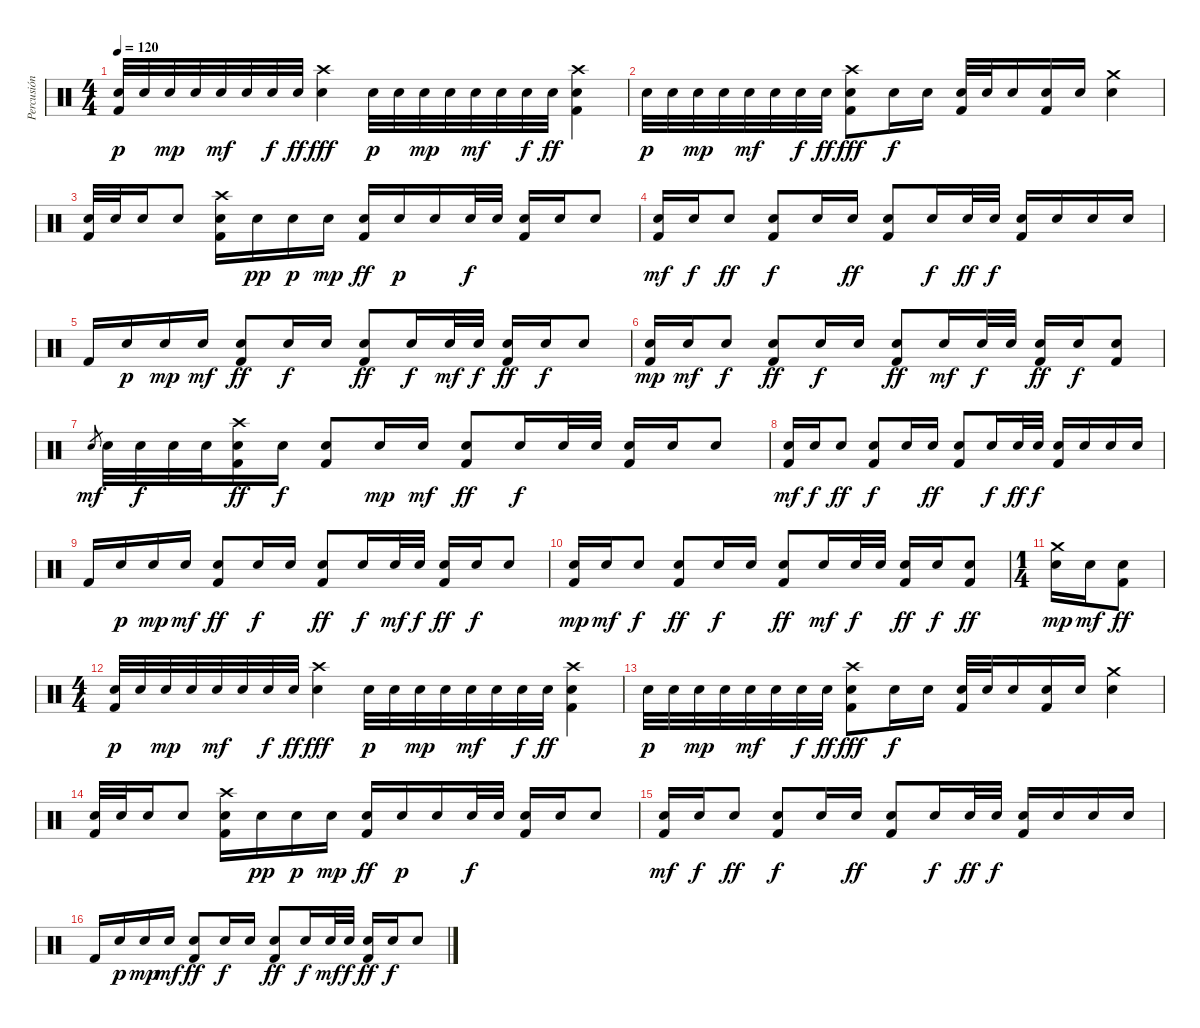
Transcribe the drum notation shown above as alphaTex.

\track ("Percusión" "Percusión") {instrument percussion}
\staff {score}
\articulation defaults
\ts (4 4)
\tempo 120
\clef neutral
\ks c
("Electric Snare (hit)" "Kick (hit) 2").32{dy p} "Electric Snare (hit)".32 "Electric Snare (hit)".32{dy mp} "Electric Snare (hit)".32 "Electric Snare (hit)".32{dy mf} "Electric Snare (hit)".32 "Electric Snare (hit)".32{dy f} "Electric Snare (hit)".32{dy ff} ("Crash high (hit)" "Electric Snare (hit)").4{dy fff} "Electric Snare (hit)".32{dy p} "Electric Snare (hit)".32 "Electric Snare (hit)".32{dy mp} "Electric Snare (hit)".32 "Electric Snare (hit)".32{dy mf} "Electric Snare (hit)".32 "Electric Snare (hit)".32{dy f} "Electric Snare (hit)".32{dy ff} ("Crash high (hit)" "Electric Snare (hit)" "Kick (hit) 2").4 |
"Electric Snare (hit)".32{dy p} "Electric Snare (hit)".32 "Electric Snare (hit)".32{dy mp} "Electric Snare (hit)".32 "Electric Snare (hit)".32{dy mf} "Electric Snare (hit)".32 "Electric Snare (hit)".32{dy f} "Electric Snare (hit)".32{dy ff} ("Crash high (hit)" "Electric Snare (hit)" "Kick (hit) 2").8{dy fff} "Electric Snare (hit)".16{dy f} "Electric Snare (hit)".16 ("Electric Snare (hit)" "Kick (hit) 2").32 "Electric Snare (hit)".32 "Electric Snare (hit)".16 ("Electric Snare (hit)" "Kick (hit) 2").16 "Electric Snare (hit)".16 ("Crash medium (hit)" "Electric Snare (hit)").4 |
("Electric Snare (hit)" "Kick (hit) 2").32 "Electric Snare (hit)".32 "Electric Snare (hit)".16 "Electric Snare (hit)".8 ("Crash high (hit)" "Electric Snare (hit)" "Kick (hit) 2").16 "Electric Snare (hit)".16{dy pp} "Electric Snare (hit)".16{dy p} "Electric Snare (hit)".16{dy mp} ("Electric Snare (hit)" "Kick (hit) 2").16{dy ff} "Electric Snare (hit)".16{dy p} "Electric Snare (hit)".16 "Electric Snare (hit)".32{dy f} "Electric Snare (hit)".32 ("Electric Snare (hit)" "Kick (hit) 2").16 "Electric Snare (hit)".16 "Electric Snare (hit)".8 |
("Electric Snare (hit)" "Kick (hit) 2").16{dy mf} "Electric Snare (hit)".16{dy f} "Electric Snare (hit)".8{dy ff} ("Electric Snare (hit)" "Kick (hit) 2").8{dy f} "Electric Snare (hit)".16 "Electric Snare (hit)".16{dy ff} ("Electric Snare (hit)" "Kick (hit) 2").8 "Electric Snare (hit)".16{dy f} "Electric Snare (hit)".32{dy ff} "Electric Snare (hit)".32{dy f} ("Electric Snare (hit)" "Kick (hit) 2").16 "Electric Snare (hit)".16 "Electric Snare (hit)".16 "Electric Snare (hit)".16 |
"Kick (hit) 2".16 "Electric Snare (hit)".16{dy p} "Electric Snare (hit)".16{dy mp} "Electric Snare (hit)".16{dy mf} ("Electric Snare (hit)" "Kick (hit) 2").8{dy ff} "Electric Snare (hit)".16{dy f} "Electric Snare (hit)".16 ("Electric Snare (hit)" "Kick (hit) 2").8{dy ff} "Electric Snare (hit)".16{dy f} "Electric Snare (hit)".32{dy mf} "Electric Snare (hit)".32{dy f} ("Electric Snare (hit)" "Kick (hit) 2").16{dy ff} "Electric Snare (hit)".16{dy f} "Electric Snare (hit)".8 |
("Electric Snare (hit)" "Kick (hit) 2").16{dy mp} "Electric Snare (hit)".16{dy mf} "Electric Snare (hit)".8{dy f} ("Electric Snare (hit)" "Kick (hit) 2").8{dy ff} "Electric Snare (hit)".16{dy f} "Electric Snare (hit)".16 ("Electric Snare (hit)" "Kick (hit) 2").8{dy ff} "Electric Snare (hit)".16{dy mf} "Electric Snare (hit)".32{dy f} "Electric Snare (hit)".32 ("Electric Snare (hit)" "Kick (hit) 2").16{dy ff} "Electric Snare (hit)".16{dy f} ("Electric Snare (hit)" "Kick (hit) 2").8 |
"Electric Snare (hit)".8{gr dy mf} "Electric Snare (hit)".32 "Electric Snare (hit)".32{dy f} "Electric Snare (hit)".32 "Electric Snare (hit)".32 ("Crash high (hit)" "Electric Snare (hit)" "Kick (hit) 2").16{dy ff} "Electric Snare (hit)".16{dy f} ("Electric Snare (hit)" "Kick (hit) 2").8 "Electric Snare (hit)".16{dy mp} "Electric Snare (hit)".16{dy mf} ("Electric Snare (hit)" "Kick (hit) 2").8{dy ff} "Electric Snare (hit)".16{dy f} "Electric Snare (hit)".32 "Electric Snare (hit)".32 ("Electric Snare (hit)" "Kick (hit) 2").16 "Electric Snare (hit)".16 "Electric Snare (hit)".8 |
("Electric Snare (hit)" "Kick (hit) 2").16{dy mf} "Electric Snare (hit)".16{dy f} "Electric Snare (hit)".8{dy ff} ("Electric Snare (hit)" "Kick (hit) 2").8{dy f} "Electric Snare (hit)".16 "Electric Snare (hit)".16{dy ff} ("Electric Snare (hit)" "Kick (hit) 2").8 "Electric Snare (hit)".16{dy f} "Electric Snare (hit)".32{dy ff} "Electric Snare (hit)".32{dy f} ("Electric Snare (hit)" "Kick (hit) 2").16 "Electric Snare (hit)".16 "Electric Snare (hit)".16 "Electric Snare (hit)".16 |
"Kick (hit) 2".16 "Electric Snare (hit)".16{dy p} "Electric Snare (hit)".16{dy mp} "Electric Snare (hit)".16{dy mf} ("Electric Snare (hit)" "Kick (hit) 2").8{dy ff} "Electric Snare (hit)".16{dy f} "Electric Snare (hit)".16 ("Electric Snare (hit)" "Kick (hit) 2").8{dy ff} "Electric Snare (hit)".16{dy f} "Electric Snare (hit)".32{dy mf} "Electric Snare (hit)".32{dy f} ("Electric Snare (hit)" "Kick (hit) 2").16{dy ff} "Electric Snare (hit)".16{dy f} "Electric Snare (hit)".8 |
("Electric Snare (hit)" "Kick (hit) 2").16{dy mp} "Electric Snare (hit)".16{dy mf} "Electric Snare (hit)".8{dy f} ("Electric Snare (hit)" "Kick (hit) 2").8{dy ff} "Electric Snare (hit)".16{dy f} "Electric Snare (hit)".16 ("Electric Snare (hit)" "Kick (hit) 2").8{dy ff} "Electric Snare (hit)".16{dy mf} "Electric Snare (hit)".32{dy f} "Electric Snare (hit)".32 ("Electric Snare (hit)" "Kick (hit) 2").16{dy ff} "Electric Snare (hit)".16{dy f} ("Electric Snare (hit)" "Kick (hit) 2").8{dy ff} |
\ts (1 4)
("Crash medium (hit)" "Electric Snare (hit)").16{dy mp} "Electric Snare (hit)".16{dy mf} ("Electric Snare (hit)" "Kick (hit) 2").8{dy ff} |
\ts (4 4)
("Electric Snare (hit)" "Kick (hit) 2").32{dy p} "Electric Snare (hit)".32 "Electric Snare (hit)".32{dy mp} "Electric Snare (hit)".32 "Electric Snare (hit)".32{dy mf} "Electric Snare (hit)".32 "Electric Snare (hit)".32{dy f} "Electric Snare (hit)".32{dy ff} ("Crash high (hit)" "Electric Snare (hit)").4{dy fff} "Electric Snare (hit)".32{dy p} "Electric Snare (hit)".32 "Electric Snare (hit)".32{dy mp} "Electric Snare (hit)".32 "Electric Snare (hit)".32{dy mf} "Electric Snare (hit)".32 "Electric Snare (hit)".32{dy f} "Electric Snare (hit)".32{dy ff} ("Crash high (hit)" "Electric Snare (hit)" "Kick (hit) 2").4 |
"Electric Snare (hit)".32{dy p} "Electric Snare (hit)".32 "Electric Snare (hit)".32{dy mp} "Electric Snare (hit)".32 "Electric Snare (hit)".32{dy mf} "Electric Snare (hit)".32 "Electric Snare (hit)".32{dy f} "Electric Snare (hit)".32{dy ff} ("Crash high (hit)" "Electric Snare (hit)" "Kick (hit) 2").8{dy fff} "Electric Snare (hit)".16{dy f} "Electric Snare (hit)".16 ("Electric Snare (hit)" "Kick (hit) 2").32 "Electric Snare (hit)".32 "Electric Snare (hit)".16 ("Electric Snare (hit)" "Kick (hit) 2").16 "Electric Snare (hit)".16 ("Crash medium (hit)" "Electric Snare (hit)").4 |
("Electric Snare (hit)" "Kick (hit) 2").32 "Electric Snare (hit)".32 "Electric Snare (hit)".16 "Electric Snare (hit)".8 ("Crash high (hit)" "Electric Snare (hit)" "Kick (hit) 2").16 "Electric Snare (hit)".16{dy pp} "Electric Snare (hit)".16{dy p} "Electric Snare (hit)".16{dy mp} ("Electric Snare (hit)" "Kick (hit) 2").16{dy ff} "Electric Snare (hit)".16{dy p} "Electric Snare (hit)".16 "Electric Snare (hit)".32{dy f} "Electric Snare (hit)".32 ("Electric Snare (hit)" "Kick (hit) 2").16 "Electric Snare (hit)".16 "Electric Snare (hit)".8 |
("Electric Snare (hit)" "Kick (hit) 2").16{dy mf} "Electric Snare (hit)".16{dy f} "Electric Snare (hit)".8{dy ff} ("Electric Snare (hit)" "Kick (hit) 2").8{dy f} "Electric Snare (hit)".16 "Electric Snare (hit)".16{dy ff} ("Electric Snare (hit)" "Kick (hit) 2").8 "Electric Snare (hit)".16{dy f} "Electric Snare (hit)".32{dy ff} "Electric Snare (hit)".32{dy f} ("Electric Snare (hit)" "Kick (hit) 2").16 "Electric Snare (hit)".16 "Electric Snare (hit)".16 "Electric Snare (hit)".16 |
"Kick (hit) 2".16 "Electric Snare (hit)".16{dy p} "Electric Snare (hit)".16{dy mp} "Electric Snare (hit)".16{dy mf} ("Electric Snare (hit)" "Kick (hit) 2").8{dy ff} "Electric Snare (hit)".16{dy f} "Electric Snare (hit)".16 ("Electric Snare (hit)" "Kick (hit) 2").8{dy ff} "Electric Snare (hit)".16{dy f} "Electric Snare (hit)".32{dy mf} "Electric Snare (hit)".32{dy f} ("Electric Snare (hit)" "Kick (hit) 2").16{dy ff} "Electric Snare (hit)".16{dy f} "Electric Snare (hit)".8
